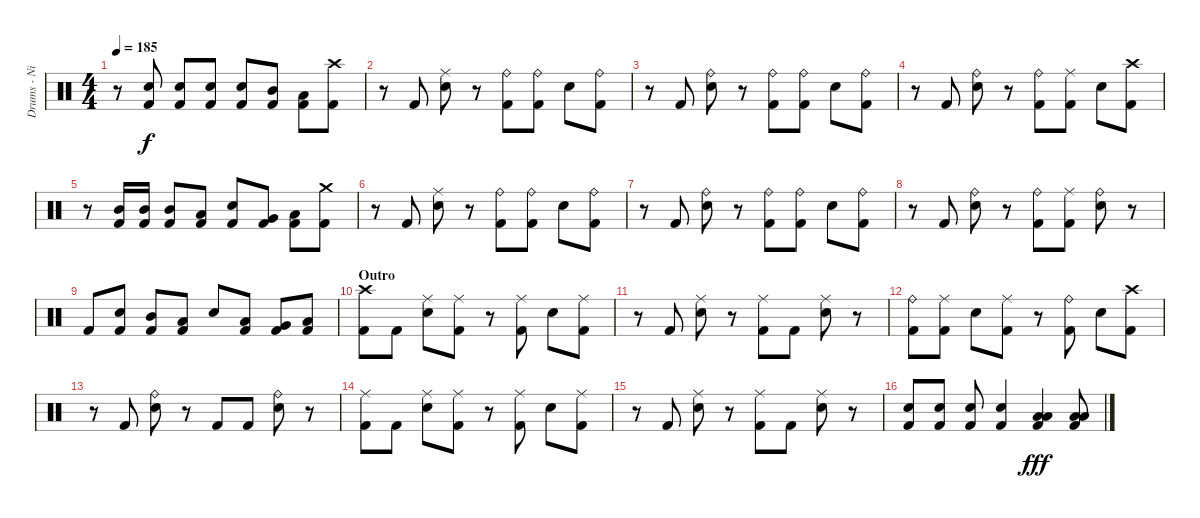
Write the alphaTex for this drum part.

\track ("Drums - Nicko" "Drums - Ni") {instrument percussion}
\staff {score}
\articulation defaults
\ts (4 4)
\tempo 185
\clef neutral
\ks c
r.8{dy f} ("Snare (hit) 2" "Kick (hit) 2").8 ("Snare (hit) 2" "Kick (hit) 2").8 ("Snare (hit) 2" "Kick (hit) 2").8 ("Snare (hit) 2" "Kick (hit) 2").8 ("Mid Tom (hit)" "Kick (hit) 2").8 ("Low Tom (hit)" "Kick (hit) 2").8 ("Crash high (hit)" "Kick (hit) 2").8 |
r.8 "Kick (hit) 2".8 ("Ride (middle)" "Snare (hit) 2").8 r.8 ("Ride (bell)" "Kick (hit) 2").8 ("Ride (bell)" "Kick (hit) 2").8 "Snare (hit) 2".8 ("Ride (bell)" "Kick (hit) 2").8 |
r.8 "Kick (hit) 2".8 ("Ride (bell)" "Snare (hit) 2").8 r.8 ("Ride (bell)" "Kick (hit) 2").8 ("Ride (bell)" "Kick (hit) 2").8 "Snare (hit) 2".8 ("Ride (bell)" "Kick (hit) 2").8 |
r.8 "Kick (hit) 2".8 ("Ride (bell)" "Snare (hit) 2").8 r.8 ("Ride (bell)" "Kick (hit) 2").8 ("Ride (middle)" "Kick (hit) 2").8 "Snare (hit) 2".8 ("Crash high (hit)" "Kick (hit) 2").8 |
r.8 ("Mid Tom (hit)" "Kick (hit) 2").16 ("Mid Tom (hit)" "Kick (hit) 2").16 ("Mid Tom (hit)" "Kick (hit) 2").8 ("Low Tom (hit)" "Kick (hit) 2").8 ("Snare (hit) 2" "Kick (hit) 2").8 ("Very Low Tom (hit)" "Kick (hit) 2").8 ("Low Floor Tom (hit)" "Kick (hit) 2").8 ("Crash medium (hit)" "Kick (hit) 2").8 |
r.8 "Kick (hit) 2".8 ("Ride (middle)" "Snare (hit) 2").8 r.8 ("Ride (bell)" "Kick (hit) 2").8 ("Ride (bell)" "Kick (hit) 2").8 "Snare (hit) 2".8 ("Ride (bell)" "Kick (hit) 2").8 |
r.8 "Kick (hit) 2".8 ("Ride (bell)" "Snare (hit) 2").8 r.8 ("Ride (bell)" "Kick (hit) 2").8 ("Ride (bell)" "Kick (hit) 2").8 "Snare (hit) 2".8 ("Ride (bell)" "Kick (hit) 2").8 |
r.8 "Kick (hit) 2".8 ("Ride (bell)" "Snare (hit) 2").8 r.8 ("Ride (bell)" "Kick (hit) 2").8 ("Ride (middle)" "Kick (hit) 2").8 ("Ride (bell)" "Snare (hit) 2").8 r.8 |
"Kick (hit) 2".8 ("Snare (hit) 2" "Kick (hit) 2").8 ("Mid Tom (hit)" "Kick (hit) 2").8 ("Low Tom (hit)" "Kick (hit) 2").8 "Snare (hit) 2".8 ("Low Tom (hit)" "Kick (hit) 2").8 ("Very Low Tom (hit)" "Kick (hit) 2").8 ("Low Floor Tom (hit)" "Kick (hit) 2").8 |
\section ("" "Outro")
("Crash high (hit)" "Kick (hit) 2").8 "Kick (hit) 2".8 ("Ride (middle)" "Snare (hit) 2").8 ("Ride (middle)" "Kick (hit) 2").8 r.8 ("Ride (middle)" "Kick (hit) 2").8 "Snare (hit) 2".8 ("Ride (middle)" "Kick (hit) 2").8 |
r.8 "Kick (hit) 2".8 ("Ride (middle)" "Snare (hit) 2").8 r.8 ("Ride (middle)" "Kick (hit) 2").8 "Kick (hit) 2".8 ("Ride (middle)" "Snare (hit) 2").8 r.8 |
("Ride (bell)" "Kick (hit) 2").8 ("Ride (middle)" "Kick (hit) 2").8 "Snare (hit) 2".8 ("Ride (middle)" "Kick (hit) 2").8 r.8 ("Ride (bell)" "Kick (hit) 2").8 "Snare (hit) 2".8 ("Crash high (hit)" "Kick (hit) 2").8 |
r.8 "Kick (hit) 2".8 ("Ride (bell)" "Snare (hit) 2").8 r.8 "Kick (hit) 2".8 "Kick (hit) 2".8 ("Ride (bell)" "Snare (hit) 2").8 r.8 |
("Ride (middle)" "Kick (hit) 2").8 "Kick (hit) 2".8 ("Ride (middle)" "Snare (hit) 2").8 ("Ride (middle)" "Kick (hit) 2").8 r.8 ("Ride (middle)" "Kick (hit) 2").8 "Snare (hit) 2".8 ("Ride (middle)" "Kick (hit) 2").8 |
r.8 "Kick (hit) 2".8 ("Ride (middle)" "Snare (hit) 2").8 r.8 ("Ride (middle)" "Kick (hit) 2").8 "Kick (hit) 2".8 ("Ride (middle)" "Snare (hit) 2").8 r.8 |
("Snare (hit) 2" "Kick (hit) 2").8 ("Snare (hit) 2" "Kick (hit) 2").8 ("Snare (hit) 2" "Kick (hit) 2").8 ("Snare (hit) 2" "Kick (hit) 2").4 ("Low Tom (hit)" "Low Floor Tom (hit)" "Kick (hit) 2").4{dy fff} ("Low Tom (hit)" "Low Floor Tom (hit)" "Kick (hit) 2").8
